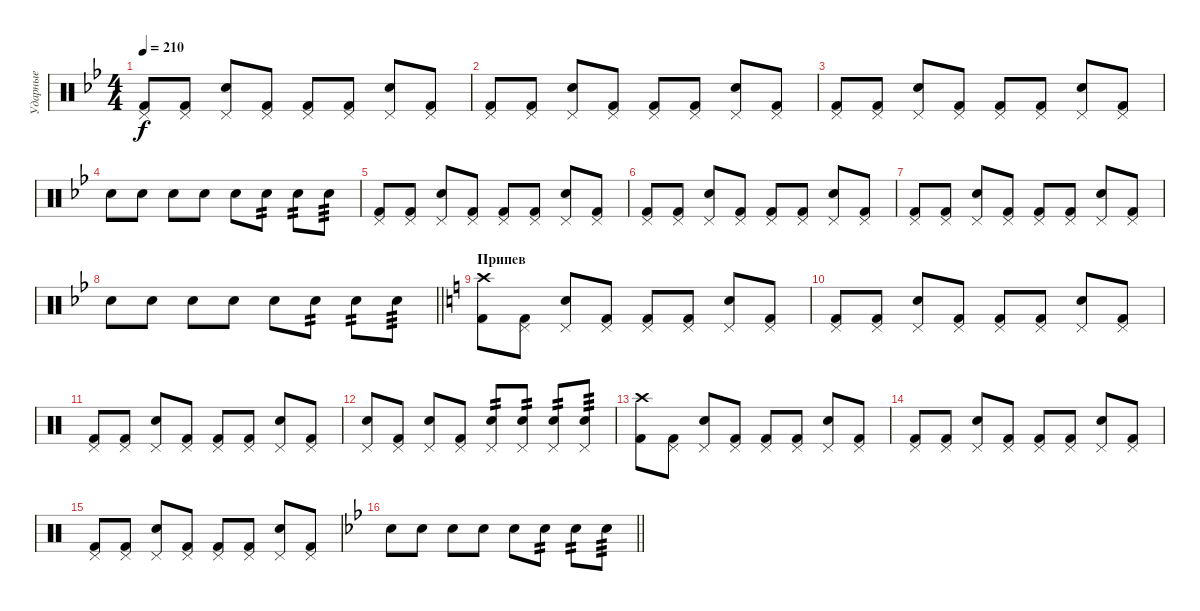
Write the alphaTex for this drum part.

\track ("Ударные" "Ударные") {instrument percussion}
\staff {score}
\articulation defaults
\ts (4 4)
\tempo 210
\clef neutral
\ks bb
("Pedal Hi-Hat (hit)" "Kick (hit) 2").8{dy f} ("Pedal Hi-Hat (hit)" "Kick (hit) 2").8 ("Pedal Hi-Hat (hit)" "Electric Snare (hit)").8 ("Pedal Hi-Hat (hit)" "Kick (hit) 2").8 ("Pedal Hi-Hat (hit)" "Kick (hit) 2").8 ("Pedal Hi-Hat (hit)" "Kick (hit) 2").8 ("Pedal Hi-Hat (hit)" "Electric Snare (hit)").8 ("Pedal Hi-Hat (hit)" "Kick (hit) 2").8 |
("Pedal Hi-Hat (hit)" "Kick (hit) 2").8 ("Pedal Hi-Hat (hit)" "Kick (hit) 2").8 ("Pedal Hi-Hat (hit)" "Electric Snare (hit)").8 ("Pedal Hi-Hat (hit)" "Kick (hit) 2").8 ("Pedal Hi-Hat (hit)" "Kick (hit) 2").8 ("Pedal Hi-Hat (hit)" "Kick (hit) 2").8 ("Pedal Hi-Hat (hit)" "Electric Snare (hit)").8 ("Pedal Hi-Hat (hit)" "Kick (hit) 2").8 |
("Pedal Hi-Hat (hit)" "Kick (hit) 2").8 ("Pedal Hi-Hat (hit)" "Kick (hit) 2").8 ("Pedal Hi-Hat (hit)" "Electric Snare (hit)").8 ("Pedal Hi-Hat (hit)" "Kick (hit) 2").8 ("Pedal Hi-Hat (hit)" "Kick (hit) 2").8 ("Pedal Hi-Hat (hit)" "Kick (hit) 2").8 ("Pedal Hi-Hat (hit)" "Electric Snare (hit)").8 ("Pedal Hi-Hat (hit)" "Kick (hit) 2").8 |
"Electric Snare (hit)".8 "Electric Snare (hit)".8 "Electric Snare (hit)".8 "Electric Snare (hit)".8 "Electric Snare (hit)".8 "Electric Snare (hit)".8{tp 2} "Electric Snare (hit)".8{tp 2} "Electric Snare (hit)".8{tp 3} |
("Pedal Hi-Hat (hit)" "Kick (hit) 2").8 ("Pedal Hi-Hat (hit)" "Kick (hit) 2").8 ("Pedal Hi-Hat (hit)" "Electric Snare (hit)").8 ("Pedal Hi-Hat (hit)" "Kick (hit) 2").8 ("Pedal Hi-Hat (hit)" "Kick (hit) 2").8 ("Pedal Hi-Hat (hit)" "Kick (hit) 2").8 ("Pedal Hi-Hat (hit)" "Electric Snare (hit)").8 ("Pedal Hi-Hat (hit)" "Kick (hit) 2").8 |
("Pedal Hi-Hat (hit)" "Kick (hit) 2").8 ("Pedal Hi-Hat (hit)" "Kick (hit) 2").8 ("Pedal Hi-Hat (hit)" "Electric Snare (hit)").8 ("Pedal Hi-Hat (hit)" "Kick (hit) 2").8 ("Pedal Hi-Hat (hit)" "Kick (hit) 2").8 ("Pedal Hi-Hat (hit)" "Kick (hit) 2").8 ("Pedal Hi-Hat (hit)" "Electric Snare (hit)").8 ("Pedal Hi-Hat (hit)" "Kick (hit) 2").8 |
("Pedal Hi-Hat (hit)" "Kick (hit) 2").8 ("Pedal Hi-Hat (hit)" "Kick (hit) 2").8 ("Pedal Hi-Hat (hit)" "Electric Snare (hit)").8 ("Pedal Hi-Hat (hit)" "Kick (hit) 2").8 ("Pedal Hi-Hat (hit)" "Kick (hit) 2").8 ("Pedal Hi-Hat (hit)" "Kick (hit) 2").8 ("Pedal Hi-Hat (hit)" "Electric Snare (hit)").8 ("Pedal Hi-Hat (hit)" "Kick (hit) 2").8 |
\barLineRight lightlight "Electric Snare (hit)".8 "Electric Snare (hit)".8 "Electric Snare (hit)".8 "Electric Snare (hit)".8 "Electric Snare (hit)".8 "Electric Snare (hit)".8{tp 2} "Electric Snare (hit)".8{tp 2} "Electric Snare (hit)".8{tp 3}
|
\section ("" "Припев")
\ks c
("Crash high (hit)" "Kick (hit) 2").8 ("Pedal Hi-Hat (hit)" "Kick (hit) 2").8 ("Pedal Hi-Hat (hit)" "Electric Snare (hit)").8 ("Pedal Hi-Hat (hit)" "Kick (hit) 2").8 ("Pedal Hi-Hat (hit)" "Kick (hit) 2").8 ("Pedal Hi-Hat (hit)" "Kick (hit) 2").8 ("Pedal Hi-Hat (hit)" "Electric Snare (hit)").8 ("Pedal Hi-Hat (hit)" "Kick (hit) 2").8 |
("Pedal Hi-Hat (hit)" "Kick (hit) 2").8 ("Pedal Hi-Hat (hit)" "Kick (hit) 2").8 ("Pedal Hi-Hat (hit)" "Electric Snare (hit)").8 ("Pedal Hi-Hat (hit)" "Kick (hit) 2").8 ("Pedal Hi-Hat (hit)" "Kick (hit) 2").8 ("Pedal Hi-Hat (hit)" "Kick (hit) 2").8 ("Pedal Hi-Hat (hit)" "Electric Snare (hit)").8 ("Pedal Hi-Hat (hit)" "Kick (hit) 2").8 |
("Pedal Hi-Hat (hit)" "Kick (hit) 2").8 ("Pedal Hi-Hat (hit)" "Kick (hit) 2").8 ("Pedal Hi-Hat (hit)" "Electric Snare (hit)").8 ("Pedal Hi-Hat (hit)" "Kick (hit) 2").8 ("Pedal Hi-Hat (hit)" "Kick (hit) 2").8 ("Pedal Hi-Hat (hit)" "Kick (hit) 2").8 ("Pedal Hi-Hat (hit)" "Electric Snare (hit)").8 ("Pedal Hi-Hat (hit)" "Kick (hit) 2").8 |
("Pedal Hi-Hat (hit)" "Electric Snare (hit)").8 ("Pedal Hi-Hat (hit)" "Kick (hit) 2").8 ("Pedal Hi-Hat (hit)" "Electric Snare (hit)").8 ("Pedal Hi-Hat (hit)" "Kick (hit) 2").8 ("Pedal Hi-Hat (hit)" "Electric Snare (hit)").8{tp 2} ("Pedal Hi-Hat (hit)" "Electric Snare (hit)").8{tp 2} ("Pedal Hi-Hat (hit)" "Electric Snare (hit)").8{tp 2} ("Pedal Hi-Hat (hit)" "Electric Snare (hit)").8{tp 3} |
("Crash high (hit)" "Kick (hit) 2").8 ("Pedal Hi-Hat (hit)" "Kick (hit) 2").8 ("Pedal Hi-Hat (hit)" "Electric Snare (hit)").8 ("Pedal Hi-Hat (hit)" "Kick (hit) 2").8 ("Pedal Hi-Hat (hit)" "Kick (hit) 2").8 ("Pedal Hi-Hat (hit)" "Kick (hit) 2").8 ("Pedal Hi-Hat (hit)" "Electric Snare (hit)").8 ("Pedal Hi-Hat (hit)" "Kick (hit) 2").8 |
("Pedal Hi-Hat (hit)" "Kick (hit) 2").8 ("Pedal Hi-Hat (hit)" "Kick (hit) 2").8 ("Pedal Hi-Hat (hit)" "Electric Snare (hit)").8 ("Pedal Hi-Hat (hit)" "Kick (hit) 2").8 ("Pedal Hi-Hat (hit)" "Kick (hit) 2").8 ("Pedal Hi-Hat (hit)" "Kick (hit) 2").8 ("Pedal Hi-Hat (hit)" "Electric Snare (hit)").8 ("Pedal Hi-Hat (hit)" "Kick (hit) 2").8 |
("Pedal Hi-Hat (hit)" "Kick (hit) 2").8 ("Pedal Hi-Hat (hit)" "Kick (hit) 2").8 ("Pedal Hi-Hat (hit)" "Electric Snare (hit)").8 ("Pedal Hi-Hat (hit)" "Kick (hit) 2").8 ("Pedal Hi-Hat (hit)" "Kick (hit) 2").8 ("Pedal Hi-Hat (hit)" "Kick (hit) 2").8 ("Pedal Hi-Hat (hit)" "Electric Snare (hit)").8 ("Pedal Hi-Hat (hit)" "Kick (hit) 2").8 |
\barLineRight lightlight
\ks bb "Electric Snare (hit)".8 "Electric Snare (hit)".8 "Electric Snare (hit)".8 "Electric Snare (hit)".8 "Electric Snare (hit)".8 "Electric Snare (hit)".8{tp 2} "Electric Snare (hit)".8{tp 2} "Electric Snare (hit)".8{tp 3}
